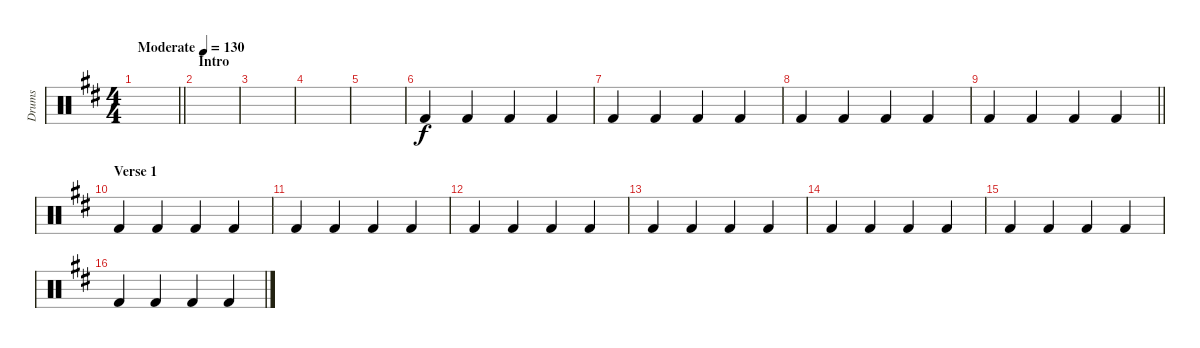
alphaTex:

\track ("Drums" "Drums") {instrument percussion}
\staff {score}
\articulation defaults
\ts (4 4)
\tempo (130 "Moderate")
\clef neutral
\barLineRight lightlight
\ks d
|
\section ("" "Intro")
|
|
|
|
"Kick (hit) 2".4 "Kick (hit) 2".4 "Kick (hit) 2".4 "Kick (hit) 2".4 |
"Kick (hit) 2".4 "Kick (hit) 2".4 "Kick (hit) 2".4 "Kick (hit) 2".4 |
"Kick (hit) 2".4 "Kick (hit) 2".4 "Kick (hit) 2".4 "Kick (hit) 2".4 |
\barLineRight lightlight "Kick (hit) 2".4 "Kick (hit) 2".4 "Kick (hit) 2".4 "Kick (hit) 2".4
|
\section ("" "Verse 1")
"Kick (hit) 2".4 "Kick (hit) 2".4 "Kick (hit) 2".4 "Kick (hit) 2".4 |
"Kick (hit) 2".4 "Kick (hit) 2".4 "Kick (hit) 2".4 "Kick (hit) 2".4 |
"Kick (hit) 2".4 "Kick (hit) 2".4 "Kick (hit) 2".4 "Kick (hit) 2".4 |
"Kick (hit) 2".4 "Kick (hit) 2".4 "Kick (hit) 2".4 "Kick (hit) 2".4 |
"Kick (hit) 2".4 "Kick (hit) 2".4 "Kick (hit) 2".4 "Kick (hit) 2".4 |
"Kick (hit) 2".4 "Kick (hit) 2".4 "Kick (hit) 2".4 "Kick (hit) 2".4 |
"Kick (hit) 2".4 "Kick (hit) 2".4 "Kick (hit) 2".4 "Kick (hit) 2".4
